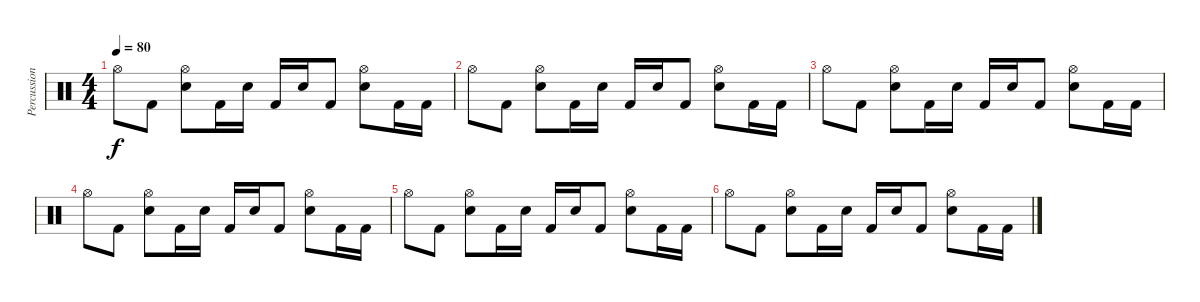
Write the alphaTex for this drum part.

\track ("Percussions" "Percussion") {instrument percussion}
\staff {score}
\articulation defaults
\ts (4 4)
\tempo 80
\clef neutral
\ks aminor "Hi-Hat (open)".8{dy f} "Kick (hit) 2".8
("Hi-Hat (open)" "Electric Snare (hit)").8 "Kick (hit) 2".16 "Electric Snare (hit)".16 "Kick (hit) 2".16 "Electric Snare (hit)".16 "Kick (hit) 2".8 ("Hi-Hat (open)" "Electric Snare (hit)").8 "Kick (hit) 2".16 "Kick (hit) 2".16 |
"Hi-Hat (open)".8 "Kick (hit) 2".8 ("Hi-Hat (open)" "Electric Snare (hit)").8 "Kick (hit) 2".16 "Electric Snare (hit)".16 "Kick (hit) 2".16 "Electric Snare (hit)".16 "Kick (hit) 2".8 ("Hi-Hat (open)" "Electric Snare (hit)").8 "Kick (hit) 2".16 "Kick (hit) 2".16 |
"Hi-Hat (open)".8 "Kick (hit) 2".8 ("Hi-Hat (open)" "Electric Snare (hit)").8 "Kick (hit) 2".16 "Electric Snare (hit)".16 "Kick (hit) 2".16 "Electric Snare (hit)".16 "Kick (hit) 2".8 ("Hi-Hat (open)" "Electric Snare (hit)").8 "Kick (hit) 2".16 "Kick (hit) 2".16 |
"Hi-Hat (open)".8 "Kick (hit) 2".8 ("Hi-Hat (open)" "Electric Snare (hit)").8 "Kick (hit) 2".16 "Electric Snare (hit)".16 "Kick (hit) 2".16 "Electric Snare (hit)".16 "Kick (hit) 2".8 ("Hi-Hat (open)" "Electric Snare (hit)").8 "Kick (hit) 2".16 "Kick (hit) 2".16 |
"Hi-Hat (open)".8 "Kick (hit) 2".8 ("Hi-Hat (open)" "Electric Snare (hit)").8 "Kick (hit) 2".16 "Electric Snare (hit)".16 "Kick (hit) 2".16 "Electric Snare (hit)".16 "Kick (hit) 2".8 ("Hi-Hat (open)" "Electric Snare (hit)").8 "Kick (hit) 2".16 "Kick (hit) 2".16 |
"Hi-Hat (open)".8 "Kick (hit) 2".8 ("Hi-Hat (open)" "Electric Snare (hit)").8 "Kick (hit) 2".16 "Electric Snare (hit)".16 "Kick (hit) 2".16 "Electric Snare (hit)".16 "Kick (hit) 2".8 ("Hi-Hat (open)" "Electric Snare (hit)").8 "Kick (hit) 2".16 "Kick (hit) 2".16
